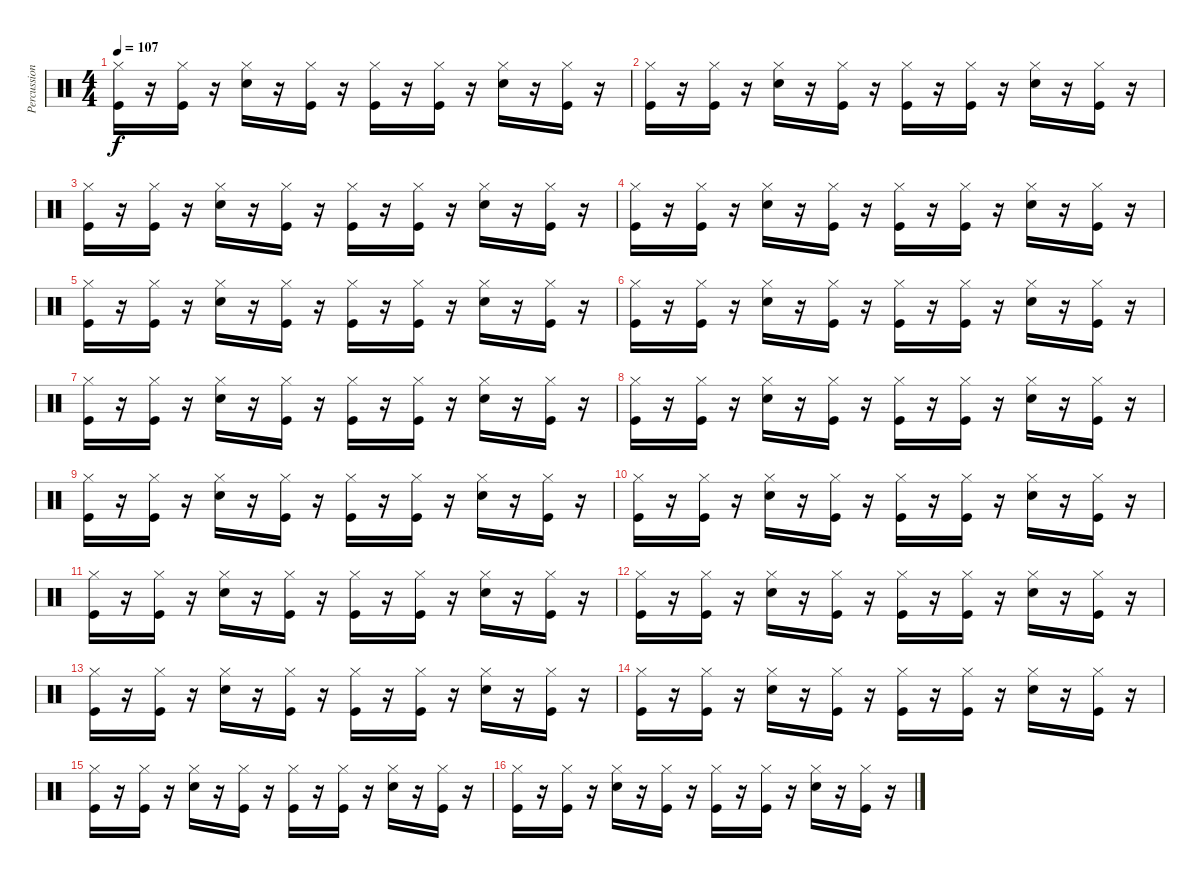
\track ("Percussions" "Percussion") {instrument percussion}
\staff {score}
\articulation defaults
\ts (4 4)
\tempo 107
\clef neutral
\ks c
("Hi-Hat (closed)" "Kick (hit)").16{dy f} r.16 ("Hi-Hat (closed)" "Kick (hit)").16 r.16 ("Hi-Hat (closed)" "Electric Snare (hit)").16 r.16 ("Hi-Hat (closed)" "Kick (hit)").16 r.16 ("Hi-Hat (closed)" "Kick (hit)").16 r.16 ("Hi-Hat (closed)" "Kick (hit)").16 r.16 ("Hi-Hat (closed)" "Electric Snare (hit)").16 r.16 ("Hi-Hat (closed)" "Kick (hit)").16 r.16 |
("Hi-Hat (closed)" "Kick (hit)").16 r.16 ("Hi-Hat (closed)" "Kick (hit)").16 r.16 ("Hi-Hat (closed)" "Electric Snare (hit)").16 r.16 ("Hi-Hat (closed)" "Kick (hit)").16 r.16 ("Hi-Hat (closed)" "Kick (hit)").16 r.16 ("Hi-Hat (closed)" "Kick (hit)").16 r.16 ("Hi-Hat (closed)" "Electric Snare (hit)").16 r.16 ("Hi-Hat (closed)" "Kick (hit)").16 r.16 |
("Hi-Hat (closed)" "Kick (hit)").16 r.16 ("Hi-Hat (closed)" "Kick (hit)").16 r.16 ("Hi-Hat (closed)" "Electric Snare (hit)").16 r.16 ("Hi-Hat (closed)" "Kick (hit)").16 r.16 ("Hi-Hat (closed)" "Kick (hit)").16 r.16 ("Hi-Hat (closed)" "Kick (hit)").16 r.16 ("Hi-Hat (closed)" "Electric Snare (hit)").16 r.16 ("Hi-Hat (closed)" "Kick (hit)").16 r.16 |
("Hi-Hat (closed)" "Kick (hit)").16 r.16 ("Hi-Hat (closed)" "Kick (hit)").16 r.16 ("Hi-Hat (closed)" "Electric Snare (hit)").16 r.16 ("Hi-Hat (closed)" "Kick (hit)").16 r.16 ("Hi-Hat (closed)" "Kick (hit)").16 r.16 ("Hi-Hat (closed)" "Kick (hit)").16 r.16 ("Hi-Hat (closed)" "Electric Snare (hit)").16 r.16 ("Hi-Hat (closed)" "Kick (hit)").16 r.16 |
("Hi-Hat (closed)" "Kick (hit)").16 r.16 ("Hi-Hat (closed)" "Kick (hit)").16 r.16 ("Hi-Hat (closed)" "Electric Snare (hit)").16 r.16 ("Hi-Hat (closed)" "Kick (hit)").16 r.16 ("Hi-Hat (closed)" "Kick (hit)").16 r.16 ("Hi-Hat (closed)" "Kick (hit)").16 r.16 ("Hi-Hat (closed)" "Electric Snare (hit)").16 r.16 ("Hi-Hat (closed)" "Kick (hit)").16 r.16 |
("Hi-Hat (closed)" "Kick (hit)").16 r.16 ("Hi-Hat (closed)" "Kick (hit)").16 r.16 ("Hi-Hat (closed)" "Electric Snare (hit)").16 r.16 ("Hi-Hat (closed)" "Kick (hit)").16 r.16 ("Hi-Hat (closed)" "Kick (hit)").16 r.16 ("Hi-Hat (closed)" "Kick (hit)").16 r.16 ("Hi-Hat (closed)" "Electric Snare (hit)").16 r.16 ("Hi-Hat (closed)" "Kick (hit)").16 r.16 |
("Hi-Hat (closed)" "Kick (hit)").16 r.16 ("Hi-Hat (closed)" "Kick (hit)").16 r.16 ("Hi-Hat (closed)" "Electric Snare (hit)").16 r.16 ("Hi-Hat (closed)" "Kick (hit)").16 r.16 ("Hi-Hat (closed)" "Kick (hit)").16 r.16 ("Hi-Hat (closed)" "Kick (hit)").16 r.16 ("Hi-Hat (closed)" "Electric Snare (hit)").16 r.16 ("Hi-Hat (closed)" "Kick (hit)").16 r.16 |
("Hi-Hat (closed)" "Kick (hit)").16 r.16 ("Hi-Hat (closed)" "Kick (hit)").16 r.16 ("Hi-Hat (closed)" "Electric Snare (hit)").16 r.16 ("Hi-Hat (closed)" "Kick (hit)").16 r.16 ("Hi-Hat (closed)" "Kick (hit)").16 r.16 ("Hi-Hat (closed)" "Kick (hit)").16 r.16 ("Hi-Hat (closed)" "Electric Snare (hit)").16 r.16 ("Hi-Hat (closed)" "Kick (hit)").16 r.16 |
("Hi-Hat (closed)" "Kick (hit)").16 r.16 ("Hi-Hat (closed)" "Kick (hit)").16 r.16 ("Hi-Hat (closed)" "Electric Snare (hit)").16 r.16 ("Hi-Hat (closed)" "Kick (hit)").16 r.16 ("Hi-Hat (closed)" "Kick (hit)").16 r.16 ("Hi-Hat (closed)" "Kick (hit)").16 r.16 ("Hi-Hat (closed)" "Electric Snare (hit)").16 r.16 ("Hi-Hat (closed)" "Kick (hit)").16 r.16 |
("Hi-Hat (closed)" "Kick (hit)").16 r.16 ("Hi-Hat (closed)" "Kick (hit)").16 r.16 ("Hi-Hat (closed)" "Electric Snare (hit)").16 r.16 ("Hi-Hat (closed)" "Kick (hit)").16 r.16 ("Hi-Hat (closed)" "Kick (hit)").16 r.16 ("Hi-Hat (closed)" "Kick (hit)").16 r.16 ("Hi-Hat (closed)" "Electric Snare (hit)").16 r.16 ("Hi-Hat (closed)" "Kick (hit)").16 r.16 |
("Hi-Hat (closed)" "Kick (hit)").16 r.16 ("Hi-Hat (closed)" "Kick (hit)").16 r.16 ("Hi-Hat (closed)" "Electric Snare (hit)").16 r.16 ("Hi-Hat (closed)" "Kick (hit)").16 r.16 ("Hi-Hat (closed)" "Kick (hit)").16 r.16 ("Hi-Hat (closed)" "Kick (hit)").16 r.16 ("Hi-Hat (closed)" "Electric Snare (hit)").16 r.16 ("Hi-Hat (closed)" "Kick (hit)").16 r.16 |
("Hi-Hat (closed)" "Kick (hit)").16 r.16 ("Hi-Hat (closed)" "Kick (hit)").16 r.16 ("Hi-Hat (closed)" "Electric Snare (hit)").16 r.16 ("Hi-Hat (closed)" "Kick (hit)").16 r.16 ("Hi-Hat (closed)" "Kick (hit)").16 r.16 ("Hi-Hat (closed)" "Kick (hit)").16 r.16 ("Hi-Hat (closed)" "Electric Snare (hit)").16 r.16 ("Hi-Hat (closed)" "Kick (hit)").16 r.16 |
("Hi-Hat (closed)" "Kick (hit)").16 r.16 ("Hi-Hat (closed)" "Kick (hit)").16 r.16 ("Hi-Hat (closed)" "Electric Snare (hit)").16 r.16 ("Hi-Hat (closed)" "Kick (hit)").16 r.16 ("Hi-Hat (closed)" "Kick (hit)").16 r.16 ("Hi-Hat (closed)" "Kick (hit)").16 r.16 ("Hi-Hat (closed)" "Electric Snare (hit)").16 r.16 ("Hi-Hat (closed)" "Kick (hit)").16 r.16 |
("Hi-Hat (closed)" "Kick (hit)").16 r.16 ("Hi-Hat (closed)" "Kick (hit)").16 r.16 ("Hi-Hat (closed)" "Electric Snare (hit)").16 r.16 ("Hi-Hat (closed)" "Kick (hit)").16 r.16 ("Hi-Hat (closed)" "Kick (hit)").16 r.16 ("Hi-Hat (closed)" "Kick (hit)").16 r.16 ("Hi-Hat (closed)" "Electric Snare (hit)").16 r.16 ("Hi-Hat (closed)" "Kick (hit)").16 r.16 |
("Hi-Hat (closed)" "Kick (hit)").16 r.16 ("Hi-Hat (closed)" "Kick (hit)").16 r.16 ("Hi-Hat (closed)" "Electric Snare (hit)").16 r.16 ("Hi-Hat (closed)" "Kick (hit)").16 r.16 ("Hi-Hat (closed)" "Kick (hit)").16 r.16 ("Hi-Hat (closed)" "Kick (hit)").16 r.16 ("Hi-Hat (closed)" "Electric Snare (hit)").16 r.16 ("Hi-Hat (closed)" "Kick (hit)").16 r.16 |
("Hi-Hat (closed)" "Kick (hit)").16 r.16 ("Hi-Hat (closed)" "Kick (hit)").16 r.16 ("Hi-Hat (closed)" "Electric Snare (hit)").16 r.16 ("Hi-Hat (closed)" "Kick (hit)").16 r.16 ("Hi-Hat (closed)" "Kick (hit)").16 r.16 ("Hi-Hat (closed)" "Kick (hit)").16 r.16 ("Hi-Hat (closed)" "Electric Snare (hit)").16 r.16 ("Hi-Hat (closed)" "Kick (hit)").16 r.16
